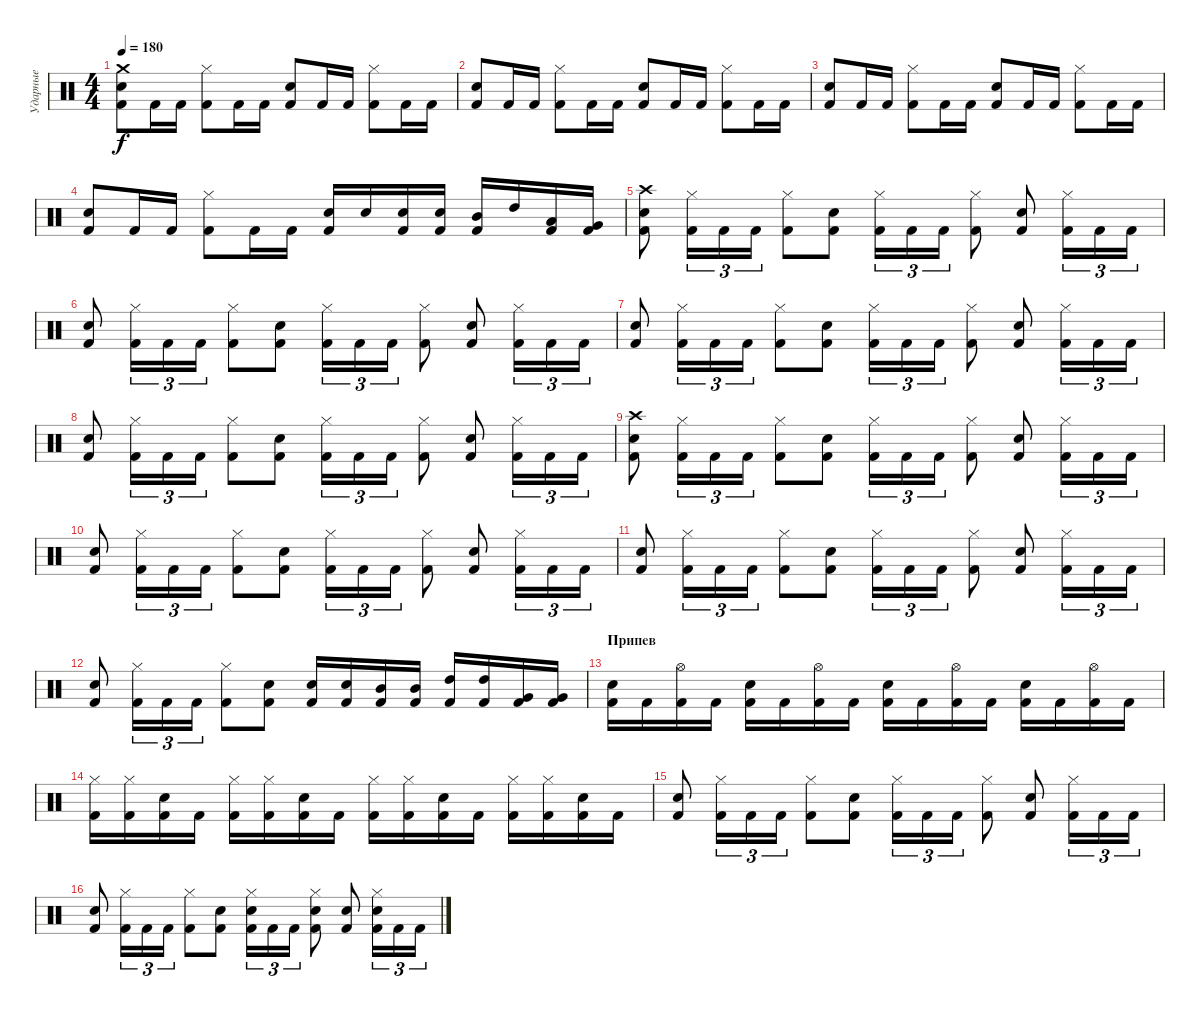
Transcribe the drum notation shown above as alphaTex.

\track ("Ударные" "Ударные") {instrument percussion}
\staff {score}
\articulation defaults
\ts (4 4)
\tempo 180
\clef neutral
\ks c
("Kick (hit) 2" "Snare (hit) 2" "Crash medium (hit)").8{dy f} "Kick (hit) 2".16 "Kick (hit) 2".16 ("Kick (hit) 2" "Hi-Hat (closed)").8 "Kick (hit) 2".16 "Kick (hit) 2".16 ("Kick (hit) 2" "Snare (hit) 2").8 "Kick (hit) 2".16 "Kick (hit) 2".16 ("Kick (hit) 2" "Hi-Hat (closed)").8 "Kick (hit) 2".16 "Kick (hit) 2".16 |
("Kick (hit) 2" "Snare (hit) 2").8 "Kick (hit) 2".16 "Kick (hit) 2".16 ("Kick (hit) 2" "Hi-Hat (closed)").8 "Kick (hit) 2".16 "Kick (hit) 2".16 ("Kick (hit) 2" "Snare (hit) 2").8 "Kick (hit) 2".16 "Kick (hit) 2".16 ("Kick (hit) 2" "Hi-Hat (closed)").8 "Kick (hit) 2".16 "Kick (hit) 2".16 |
("Kick (hit) 2" "Snare (hit) 2").8 "Kick (hit) 2".16 "Kick (hit) 2".16 ("Kick (hit) 2" "Hi-Hat (closed)").8 "Kick (hit) 2".16 "Kick (hit) 2".16 ("Kick (hit) 2" "Snare (hit) 2").8 "Kick (hit) 2".16 "Kick (hit) 2".16 ("Kick (hit) 2" "Hi-Hat (closed)").8 "Kick (hit) 2".16 "Kick (hit) 2".16 |
("Kick (hit) 2" "Snare (hit) 2").8 "Kick (hit) 2".16 "Kick (hit) 2".16 ("Kick (hit) 2" "Hi-Hat (closed)").8 "Kick (hit) 2".16 "Kick (hit) 2".16 ("Kick (hit) 2" "Snare (hit) 2").16 "Snare (hit) 2".16 ("Kick (hit) 2" "Snare (hit) 2").16 ("Kick (hit) 2" "Snare (hit) 2").16 ("Kick (hit) 2" "Mid Tom (hit)").16 "High Tom (hit)".16 ("Kick (hit) 2" "Low Tom (hit)").16 ("Kick (hit) 2" "Very Low Tom (hit)").16 |
("Kick (hit) 2" "Snare (hit) 2" "Crash high (hit)").8 ("Kick (hit) 2" "Hi-Hat (closed)").16{tu (3 2)} "Kick (hit) 2".16{tu (3 2)} "Kick (hit) 2".16{tu (3 2)} ("Kick (hit) 2" "Hi-Hat (closed)").8 ("Kick (hit) 2" "Snare (hit) 2").8 ("Kick (hit) 2" "Hi-Hat (closed)").16{tu (3 2)} "Kick (hit) 2".16{tu (3 2)} "Kick (hit) 2".16{tu (3 2)} ("Kick (hit) 2" "Hi-Hat (closed)").8 ("Kick (hit) 2" "Snare (hit) 2").8 ("Kick (hit) 2" "Hi-Hat (closed)").16{tu (3 2)} "Kick (hit) 2".16{tu (3 2)} "Kick (hit) 2".16{tu (3 2)} |
("Kick (hit) 2" "Snare (hit) 2").8 ("Kick (hit) 2" "Hi-Hat (closed)").16{tu (3 2)} "Kick (hit) 2".16{tu (3 2)} "Kick (hit) 2".16{tu (3 2)} ("Kick (hit) 2" "Hi-Hat (closed)").8 ("Kick (hit) 2" "Snare (hit) 2").8 ("Kick (hit) 2" "Hi-Hat (closed)").16{tu (3 2)} "Kick (hit) 2".16{tu (3 2)} "Kick (hit) 2".16{tu (3 2)} ("Kick (hit) 2" "Hi-Hat (closed)").8 ("Kick (hit) 2" "Snare (hit) 2").8 ("Kick (hit) 2" "Hi-Hat (closed)").16{tu (3 2)} "Kick (hit) 2".16{tu (3 2)} "Kick (hit) 2".16{tu (3 2)} |
("Kick (hit) 2" "Snare (hit) 2").8 ("Kick (hit) 2" "Hi-Hat (closed)").16{tu (3 2)} "Kick (hit) 2".16{tu (3 2)} "Kick (hit) 2".16{tu (3 2)} ("Kick (hit) 2" "Hi-Hat (closed)").8 ("Kick (hit) 2" "Snare (hit) 2").8 ("Kick (hit) 2" "Hi-Hat (closed)").16{tu (3 2)} "Kick (hit) 2".16{tu (3 2)} "Kick (hit) 2".16{tu (3 2)} ("Kick (hit) 2" "Hi-Hat (closed)").8 ("Kick (hit) 2" "Snare (hit) 2").8 ("Kick (hit) 2" "Hi-Hat (closed)").16{tu (3 2)} "Kick (hit) 2".16{tu (3 2)} "Kick (hit) 2".16{tu (3 2)} |
("Kick (hit) 2" "Snare (hit) 2").8 ("Kick (hit) 2" "Hi-Hat (closed)").16{tu (3 2)} "Kick (hit) 2".16{tu (3 2)} "Kick (hit) 2".16{tu (3 2)} ("Kick (hit) 2" "Hi-Hat (closed)").8 ("Kick (hit) 2" "Snare (hit) 2").8 ("Kick (hit) 2" "Hi-Hat (closed)").16{tu (3 2)} "Kick (hit) 2".16{tu (3 2)} "Kick (hit) 2".16{tu (3 2)} ("Kick (hit) 2" "Hi-Hat (closed)").8 ("Kick (hit) 2" "Snare (hit) 2").8 ("Kick (hit) 2" "Hi-Hat (closed)").16{tu (3 2)} "Kick (hit) 2".16{tu (3 2)} "Kick (hit) 2".16{tu (3 2)} |
("Kick (hit) 2" "Snare (hit) 2" "Crash high (hit)").8 ("Kick (hit) 2" "Hi-Hat (closed)").16{tu (3 2)} "Kick (hit) 2".16{tu (3 2)} "Kick (hit) 2".16{tu (3 2)} ("Kick (hit) 2" "Hi-Hat (closed)").8 ("Kick (hit) 2" "Snare (hit) 2").8 ("Kick (hit) 2" "Hi-Hat (closed)").16{tu (3 2)} "Kick (hit) 2".16{tu (3 2)} "Kick (hit) 2".16{tu (3 2)} ("Kick (hit) 2" "Hi-Hat (closed)").8 ("Kick (hit) 2" "Snare (hit) 2").8 ("Kick (hit) 2" "Hi-Hat (closed)").16{tu (3 2)} "Kick (hit) 2".16{tu (3 2)} "Kick (hit) 2".16{tu (3 2)} |
("Kick (hit) 2" "Snare (hit) 2").8 ("Kick (hit) 2" "Hi-Hat (closed)").16{tu (3 2)} "Kick (hit) 2".16{tu (3 2)} "Kick (hit) 2".16{tu (3 2)} ("Kick (hit) 2" "Hi-Hat (closed)").8 ("Kick (hit) 2" "Snare (hit) 2").8 ("Kick (hit) 2" "Hi-Hat (closed)").16{tu (3 2)} "Kick (hit) 2".16{tu (3 2)} "Kick (hit) 2".16{tu (3 2)} ("Kick (hit) 2" "Hi-Hat (closed)").8 ("Kick (hit) 2" "Snare (hit) 2").8 ("Kick (hit) 2" "Hi-Hat (closed)").16{tu (3 2)} "Kick (hit) 2".16{tu (3 2)} "Kick (hit) 2".16{tu (3 2)} |
("Kick (hit) 2" "Snare (hit) 2").8 ("Kick (hit) 2" "Hi-Hat (closed)").16{tu (3 2)} "Kick (hit) 2".16{tu (3 2)} "Kick (hit) 2".16{tu (3 2)} ("Kick (hit) 2" "Hi-Hat (closed)").8 ("Kick (hit) 2" "Snare (hit) 2").8 ("Kick (hit) 2" "Hi-Hat (closed)").16{tu (3 2)} "Kick (hit) 2".16{tu (3 2)} "Kick (hit) 2".16{tu (3 2)} ("Kick (hit) 2" "Hi-Hat (closed)").8 ("Kick (hit) 2" "Snare (hit) 2").8 ("Kick (hit) 2" "Hi-Hat (closed)").16{tu (3 2)} "Kick (hit) 2".16{tu (3 2)} "Kick (hit) 2".16{tu (3 2)} |
("Kick (hit) 2" "Snare (hit) 2").8 ("Kick (hit) 2" "Hi-Hat (closed)").16{tu (3 2)} "Kick (hit) 2".16{tu (3 2)} "Kick (hit) 2".16{tu (3 2)} ("Kick (hit) 2" "Hi-Hat (closed)").8 ("Kick (hit) 2" "Snare (hit) 2").8 ("Kick (hit) 2" "Snare (hit) 2").16 ("Kick (hit) 2" "Snare (hit) 2").16 ("Kick (hit) 2" "Mid Tom (hit)").16 ("Kick (hit) 2" "Mid Tom (hit)").16 ("Kick (hit) 2" "High Tom (hit)").16 ("Kick (hit) 2" "High Tom (hit)").16 ("Kick (hit) 2" "Very Low Tom (hit)").16 ("Kick (hit) 2" "Very Low Tom (hit)").16 |
\section ("" "Припев")
("Kick (hit) 2" "Snare (hit) 2").16 "Kick (hit) 2".16 ("Kick (hit) 2" "Hi-Hat (open)").16 "Kick (hit) 2".16 ("Kick (hit) 2" "Snare (hit) 2").16 "Kick (hit) 2".16 ("Kick (hit) 2" "Hi-Hat (open)").16 "Kick (hit) 2".16 ("Kick (hit) 2" "Snare (hit) 2").16 "Kick (hit) 2".16 ("Kick (hit) 2" "Hi-Hat (open)").16 "Kick (hit) 2".16 ("Kick (hit) 2" "Snare (hit) 2").16 "Kick (hit) 2".16 ("Kick (hit) 2" "Hi-Hat (open)").16 "Kick (hit) 2".16 |
("Kick (hit) 2" "Hi-Hat (closed)").16 ("Kick (hit) 2" "Hi-Hat (closed)").16 ("Kick (hit) 2" "Snare (hit) 2").16 "Kick (hit) 2".16 ("Kick (hit) 2" "Hi-Hat (closed)").16 ("Kick (hit) 2" "Hi-Hat (closed)").16 ("Kick (hit) 2" "Snare (hit) 2").16 "Kick (hit) 2".16 ("Kick (hit) 2" "Hi-Hat (closed)").16 ("Kick (hit) 2" "Hi-Hat (closed)").16 ("Kick (hit) 2" "Snare (hit) 2").16 "Kick (hit) 2".16 ("Kick (hit) 2" "Hi-Hat (closed)").16 ("Kick (hit) 2" "Hi-Hat (closed)").16 ("Kick (hit) 2" "Snare (hit) 2").16 "Kick (hit) 2".16 |
("Kick (hit) 2" "Snare (hit) 2").8 ("Kick (hit) 2" "Hi-Hat (closed)").16{tu (3 2)} "Kick (hit) 2".16{tu (3 2)} "Kick (hit) 2".16{tu (3 2)} ("Kick (hit) 2" "Hi-Hat (closed)").8 ("Kick (hit) 2" "Snare (hit) 2").8 ("Kick (hit) 2" "Hi-Hat (closed)").16{tu (3 2)} "Kick (hit) 2".16{tu (3 2)} "Kick (hit) 2".16{tu (3 2)} ("Kick (hit) 2" "Hi-Hat (closed)").8 ("Kick (hit) 2" "Snare (hit) 2").8 ("Kick (hit) 2" "Hi-Hat (closed)").16{tu (3 2)} "Kick (hit) 2".16{tu (3 2)} "Kick (hit) 2".16{tu (3 2)} |
("Kick (hit) 2" "Snare (hit) 2").8 ("Kick (hit) 2" "Hi-Hat (closed)").16{tu (3 2)} "Kick (hit) 2".16{tu (3 2)} "Kick (hit) 2".16{tu (3 2)} ("Kick (hit) 2" "Hi-Hat (closed)").8 ("Kick (hit) 2" "Snare (hit) 2").8 ("Kick (hit) 2" "Hi-Hat (closed)" "Snare (hit) 2").16{tu (3 2)} "Kick (hit) 2".16{tu (3 2)} "Kick (hit) 2".16{tu (3 2)} ("Kick (hit) 2" "Hi-Hat (closed)" "Snare (hit) 2").8 ("Kick (hit) 2" "Snare (hit) 2").8 ("Kick (hit) 2" "Hi-Hat (closed)" "Snare (hit) 2").16{tu (3 2)} "Kick (hit) 2".16{tu (3 2)} "Kick (hit) 2".16{tu (3 2)}
